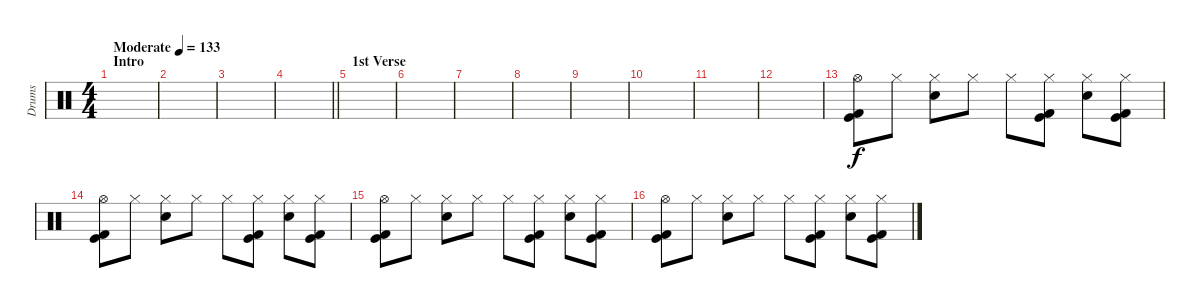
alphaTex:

\track ("Drums" "Drums") {instrument percussion}
\staff {score}
\articulation defaults
\ts (4 4)
\section ("" "Intro")
\tempo (133 "Moderate")
\clef neutral
\ks c
|
|
|
\barLineRight lightlight
|
\section ("" "1st Verse")
|
|
|
|
|
|
|
|
("Hi-Hat (open)" "Kick (hit)" "Kick (hit) 2").8 "Hi-Hat (closed)".8 ("Hi-Hat (closed)" "Snare (hit) 2").8 "Hi-Hat (closed)".8 "Hi-Hat (closed)".8 ("Hi-Hat (closed)" "Kick (hit)" "Kick (hit) 2").8 ("Hi-Hat (closed)" "Snare (hit) 2").8 ("Hi-Hat (closed)" "Kick (hit)" "Kick (hit) 2").8 |
("Hi-Hat (open)" "Kick (hit)" "Kick (hit) 2").8 "Hi-Hat (closed)".8 ("Hi-Hat (closed)" "Snare (hit) 2").8 "Hi-Hat (closed)".8 "Hi-Hat (closed)".8 ("Hi-Hat (closed)" "Kick (hit)" "Kick (hit) 2").8 ("Hi-Hat (closed)" "Snare (hit) 2").8 ("Hi-Hat (closed)" "Kick (hit)" "Kick (hit) 2").8 |
("Hi-Hat (open)" "Kick (hit)" "Kick (hit) 2").8 "Hi-Hat (closed)".8 ("Hi-Hat (closed)" "Snare (hit) 2").8 "Hi-Hat (closed)".8 "Hi-Hat (closed)".8 ("Hi-Hat (closed)" "Kick (hit)" "Kick (hit) 2").8 ("Hi-Hat (closed)" "Snare (hit) 2").8 ("Hi-Hat (closed)" "Kick (hit)" "Kick (hit) 2").8 |
("Hi-Hat (open)" "Kick (hit)" "Kick (hit) 2").8 "Hi-Hat (closed)".8 ("Hi-Hat (closed)" "Snare (hit) 2").8 "Hi-Hat (closed)".8 "Hi-Hat (closed)".8 ("Hi-Hat (closed)" "Kick (hit)" "Kick (hit) 2").8 ("Hi-Hat (closed)" "Snare (hit) 2").8 ("Hi-Hat (closed)" "Kick (hit)" "Kick (hit) 2").8
